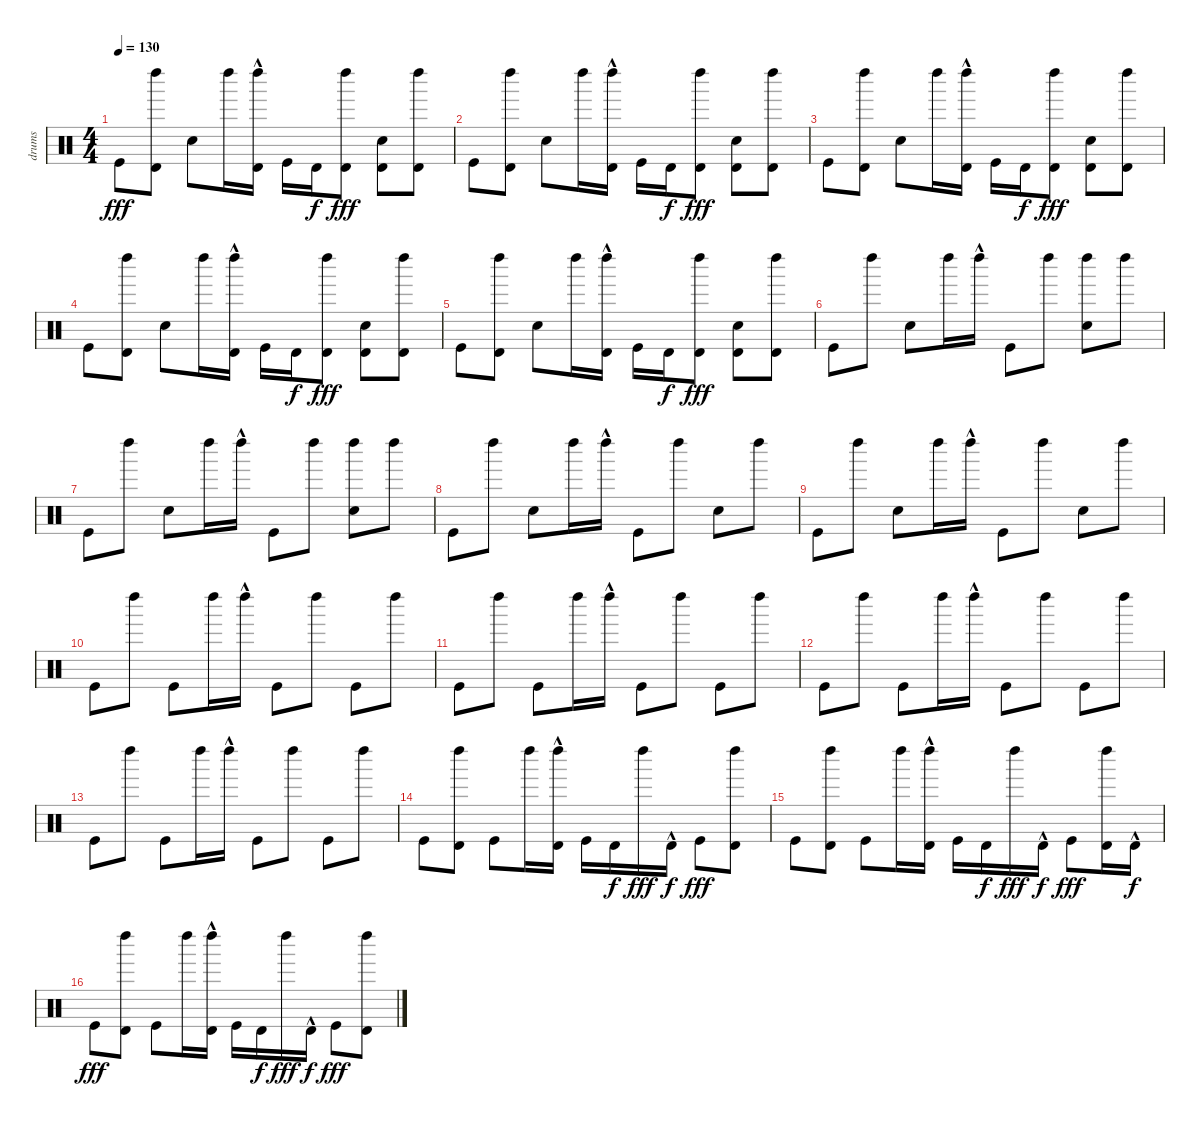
\track ("drums" "drums") {instrument percussion}
\staff {score}
\articulation defaults
\ts (4 4)
\tempo 130
\clef neutral
\ks c "Kick (hit)".8{dy fff}
("Left Maraca (hit)" "Timbale high (hit)").8 "Snare (hit) 2".8 "Left Maraca (hit)".16 ("Left Maraca (hit)"{hac} "Timbale high (hit)").16 "Kick (hit)".16 "Timbale high (hit)".16{dy f} ("Left Maraca (hit)" "Timbale high (hit)").8{dy fff} ("Snare (hit) 2" "Timbale high (hit)").8 ("Left Maraca (hit)" "Timbale high (hit)").8 |
"Kick (hit)".8 ("Left Maraca (hit)" "Timbale high (hit)").8 "Snare (hit) 2".8 "Left Maraca (hit)".16 ("Left Maraca (hit)"{hac} "Timbale high (hit)").16 "Kick (hit)".16 "Timbale high (hit)".16{dy f} ("Left Maraca (hit)" "Timbale high (hit)").8{dy fff} ("Snare (hit) 2" "Timbale high (hit)").8 ("Left Maraca (hit)" "Timbale high (hit)").8 |
"Kick (hit)".8 ("Left Maraca (hit)" "Timbale high (hit)").8 "Snare (hit) 2".8 "Left Maraca (hit)".16 ("Left Maraca (hit)"{hac} "Timbale high (hit)").16 "Kick (hit)".16 "Timbale high (hit)".16{dy f} ("Left Maraca (hit)" "Timbale high (hit)").8{dy fff} ("Snare (hit) 2" "Timbale high (hit)").8 ("Left Maraca (hit)" "Timbale high (hit)").8 |
"Kick (hit)".8 ("Left Maraca (hit)" "Timbale high (hit)").8 "Snare (hit) 2".8 "Left Maraca (hit)".16 ("Left Maraca (hit)"{hac} "Timbale high (hit)").16 "Kick (hit)".16 "Timbale high (hit)".16{dy f} ("Left Maraca (hit)" "Timbale high (hit)").8{dy fff} ("Snare (hit) 2" "Timbale high (hit)").8 ("Left Maraca (hit)" "Timbale high (hit)").8 |
"Kick (hit)".8 ("Left Maraca (hit)" "Timbale high (hit)").8 "Snare (hit) 2".8 "Left Maraca (hit)".16 ("Left Maraca (hit)"{hac} "Timbale high (hit)").16 "Kick (hit)".16 "Timbale high (hit)".16{dy f} ("Left Maraca (hit)" "Timbale high (hit)").8{dy fff} ("Snare (hit) 2" "Timbale high (hit)").8 ("Left Maraca (hit)" "Timbale high (hit)").8 |
"Kick (hit)".8 "Left Maraca (hit)".8 "Snare (hit) 2".8 "Left Maraca (hit)".16 "Left Maraca (hit)"{hac}.16 "Kick (hit)".8 "Left Maraca (hit)".8 ("Snare (hit) 2" "Left Maraca (hit)").8 "Left Maraca (hit)".8 |
"Kick (hit)".8 "Left Maraca (hit)".8 "Snare (hit) 2".8 "Left Maraca (hit)".16 "Left Maraca (hit)"{hac}.16 "Kick (hit)".8 "Left Maraca (hit)".8 ("Snare (hit) 2" "Left Maraca (hit)").8 "Left Maraca (hit)".8 |
"Kick (hit)".8 "Left Maraca (hit)".8 "Snare (hit) 2".8 "Left Maraca (hit)".16 "Left Maraca (hit)"{hac}.16 "Kick (hit)".8 "Left Maraca (hit)".8 "Snare (hit) 2".8 "Left Maraca (hit)".8 |
"Kick (hit)".8 "Left Maraca (hit)".8 "Snare (hit) 2".8 "Left Maraca (hit)".16 "Left Maraca (hit)"{hac}.16 "Kick (hit)".8 "Left Maraca (hit)".8 "Snare (hit) 2".8 "Left Maraca (hit)".8 |
"Kick (hit)".8 "Left Maraca (hit)".8 "Kick (hit)".8 "Left Maraca (hit)".16 "Left Maraca (hit)"{hac}.16 "Kick (hit)".8 "Left Maraca (hit)".8 "Kick (hit)".8 "Left Maraca (hit)".8 |
"Kick (hit)".8 "Left Maraca (hit)".8 "Kick (hit)".8 "Left Maraca (hit)".16 "Left Maraca (hit)"{hac}.16 "Kick (hit)".8 "Left Maraca (hit)".8 "Kick (hit)".8 "Left Maraca (hit)".8 |
"Kick (hit)".8 "Left Maraca (hit)".8 "Kick (hit)".8 "Left Maraca (hit)".16 "Left Maraca (hit)"{hac}.16 "Kick (hit)".8 "Left Maraca (hit)".8 "Kick (hit)".8 "Left Maraca (hit)".8 |
"Kick (hit)".8 "Left Maraca (hit)".8 "Kick (hit)".8 "Left Maraca (hit)".16 "Left Maraca (hit)"{hac}.16 "Kick (hit)".8 "Left Maraca (hit)".8 "Kick (hit)".8 "Left Maraca (hit)".8 |
"Kick (hit)".8 ("Left Maraca (hit)" "Timbale high (hit)").8 "Kick (hit)".8 "Left Maraca (hit)".16 ("Left Maraca (hit)"{hac} "Timbale high (hit)").16 "Kick (hit)".16 "Timbale high (hit)".16{dy f} "Left Maraca (hit)".16{dy fff} "Timbale high (hit)"{hac}.16{dy f} "Kick (hit)".8{dy fff} ("Left Maraca (hit)" "Timbale high (hit)").8 |
"Kick (hit)".8 ("Left Maraca (hit)" "Timbale high (hit)").8 "Kick (hit)".8 "Left Maraca (hit)".16 ("Left Maraca (hit)"{hac} "Timbale high (hit)").16 "Kick (hit)".16 "Timbale high (hit)".16{dy f} "Left Maraca (hit)".16{dy fff} "Timbale high (hit)"{hac}.16{dy f} "Kick (hit)".8{dy fff} ("Left Maraca (hit)" "Timbale high (hit)").16 "Timbale high (hit)"{hac}.16{dy f} |
"Kick (hit)".8{dy fff} ("Left Maraca (hit)" "Timbale high (hit)").8 "Kick (hit)".8 "Left Maraca (hit)".16 ("Left Maraca (hit)"{hac} "Timbale high (hit)").16 "Kick (hit)".16 "Timbale high (hit)".16{dy f} "Left Maraca (hit)".16{dy fff} "Timbale high (hit)"{hac}.16{dy f} "Kick (hit)".8{dy fff} ("Left Maraca (hit)" "Timbale high (hit)").8
